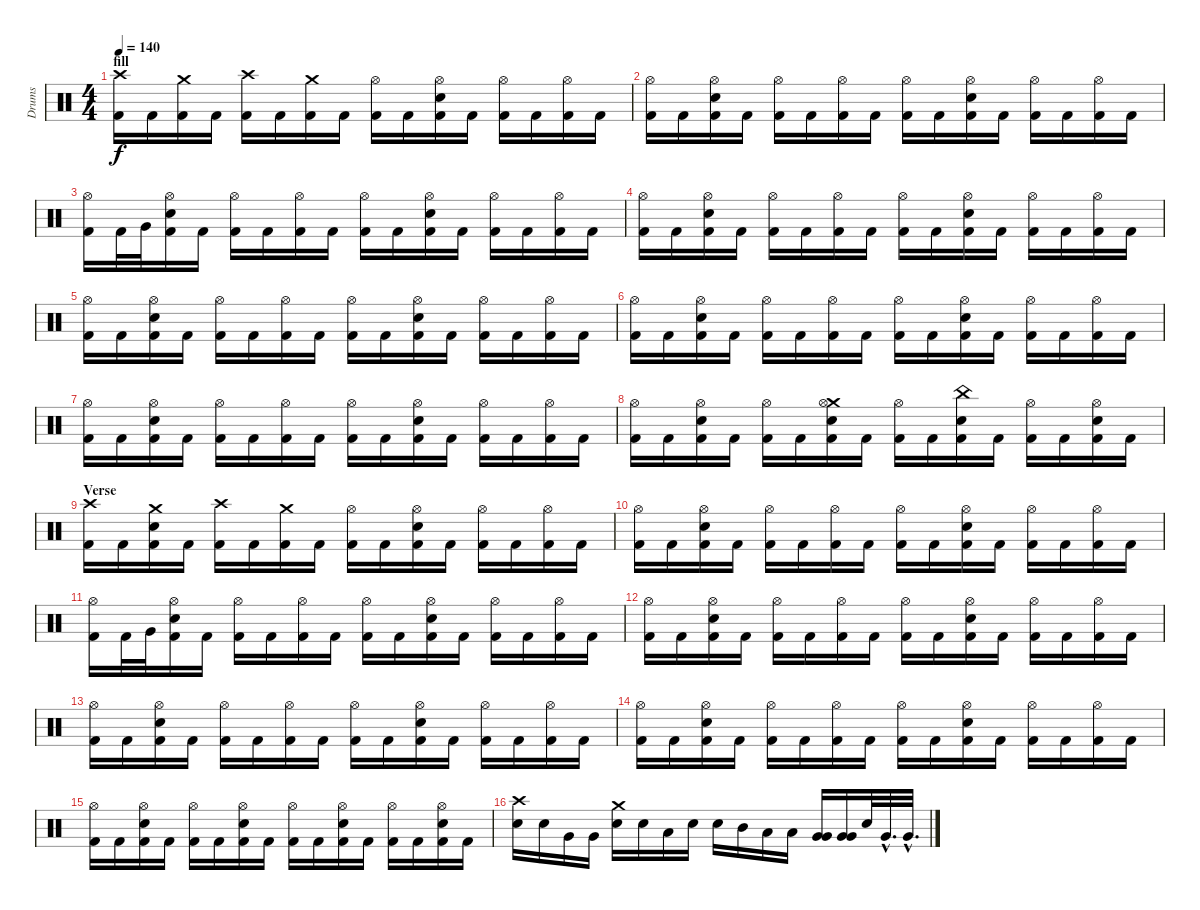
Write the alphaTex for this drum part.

\track ("Drums" "Drums") {instrument percussion}
\staff {score}
\articulation defaults
\ts (4 4)
\section ("" "fill")
\tempo 140
\clef neutral
\ks c
("Crash high (hit)" "Kick (hit) 2").16{dy f} "Kick (hit) 2".16 ("Crash medium (hit)" "Kick (hit) 2").16 "Kick (hit) 2".16 ("Crash high (hit)" "Kick (hit) 2").16 "Kick (hit) 2".16 ("Crash medium (hit)" "Kick (hit) 2").16 "Kick (hit) 2".16 ("Hi-Hat (open)" "Kick (hit) 2").16 "Kick (hit) 2".16 ("Hi-Hat (open)" "Snare (hit) 2" "Kick (hit) 2").16 "Kick (hit) 2".16 ("Hi-Hat (open)" "Kick (hit) 2").16 "Kick (hit) 2".16 ("Hi-Hat (open)" "Kick (hit) 2").16 "Kick (hit) 2".16 |
("Hi-Hat (open)" "Kick (hit) 2").16 "Kick (hit) 2".16 ("Hi-Hat (open)" "Snare (hit) 2" "Kick (hit) 2").16 "Kick (hit) 2".16 ("Hi-Hat (open)" "Kick (hit) 2").16 "Kick (hit) 2".16 ("Hi-Hat (open)" "Kick (hit) 2").16 "Kick (hit) 2".16 ("Hi-Hat (open)" "Kick (hit) 2").16 "Kick (hit) 2".16 ("Hi-Hat (open)" "Snare (hit) 2" "Kick (hit) 2").16 "Kick (hit) 2".16 ("Hi-Hat (open)" "Kick (hit) 2").16 "Kick (hit) 2".16 ("Hi-Hat (open)" "Kick (hit) 2").16 "Kick (hit) 2".16 |
("Hi-Hat (open)" "Kick (hit) 2").16 "Kick (hit) 2".32 "Very Low Tom (hit)".32 ("Hi-Hat (open)" "Snare (hit) 2" "Kick (hit) 2").16 "Kick (hit) 2".16 ("Hi-Hat (open)" "Kick (hit) 2").16 "Kick (hit) 2".16 ("Hi-Hat (open)" "Kick (hit) 2").16 "Kick (hit) 2".16 ("Hi-Hat (open)" "Kick (hit) 2").16 "Kick (hit) 2".16 ("Hi-Hat (open)" "Snare (hit) 2" "Kick (hit) 2").16 "Kick (hit) 2".16 ("Hi-Hat (open)" "Kick (hit) 2").16 "Kick (hit) 2".16 ("Hi-Hat (open)" "Kick (hit) 2").16 "Kick (hit) 2".16 |
("Hi-Hat (open)" "Kick (hit) 2").16 "Kick (hit) 2".16 ("Hi-Hat (open)" "Snare (hit) 2" "Kick (hit) 2").16 "Kick (hit) 2".16 ("Hi-Hat (open)" "Kick (hit) 2").16 "Kick (hit) 2".16 ("Hi-Hat (open)" "Kick (hit) 2").16 "Kick (hit) 2".16 ("Hi-Hat (open)" "Kick (hit) 2").16 "Kick (hit) 2".16 ("Hi-Hat (open)" "Snare (hit) 2" "Kick (hit) 2").16 "Kick (hit) 2".16 ("Hi-Hat (open)" "Kick (hit) 2").16 "Kick (hit) 2".16 ("Hi-Hat (open)" "Kick (hit) 2").16 "Kick (hit) 2".16 |
("Hi-Hat (open)" "Kick (hit) 2").16 "Kick (hit) 2".16 ("Hi-Hat (open)" "Snare (hit) 2" "Kick (hit) 2").16 "Kick (hit) 2".16 ("Hi-Hat (open)" "Kick (hit) 2").16 "Kick (hit) 2".16 ("Hi-Hat (open)" "Kick (hit) 2").16 "Kick (hit) 2".16 ("Hi-Hat (open)" "Kick (hit) 2").16 "Kick (hit) 2".16 ("Hi-Hat (open)" "Snare (hit) 2" "Kick (hit) 2").16 "Kick (hit) 2".16 ("Hi-Hat (open)" "Kick (hit) 2").16 "Kick (hit) 2".16 ("Hi-Hat (open)" "Kick (hit) 2").16 "Kick (hit) 2".16 |
("Hi-Hat (open)" "Kick (hit) 2").16 "Kick (hit) 2".16 ("Hi-Hat (open)" "Snare (hit) 2" "Kick (hit) 2").16 "Kick (hit) 2".16 ("Hi-Hat (open)" "Kick (hit) 2").16 "Kick (hit) 2".16 ("Hi-Hat (open)" "Kick (hit) 2").16 "Kick (hit) 2".16 ("Hi-Hat (open)" "Kick (hit) 2").16 "Kick (hit) 2".16 ("Hi-Hat (open)" "Snare (hit) 2" "Kick (hit) 2").16 "Kick (hit) 2".16 ("Hi-Hat (open)" "Kick (hit) 2").16 "Kick (hit) 2".16 ("Hi-Hat (open)" "Kick (hit) 2").16 "Kick (hit) 2".16 |
("Hi-Hat (open)" "Kick (hit) 2").16 "Kick (hit) 2".16 ("Hi-Hat (open)" "Snare (hit) 2" "Kick (hit) 2").16 "Kick (hit) 2".16 ("Hi-Hat (open)" "Kick (hit) 2").16 "Kick (hit) 2".16 ("Hi-Hat (open)" "Kick (hit) 2").16 "Kick (hit) 2".16 ("Hi-Hat (open)" "Kick (hit) 2").16 "Kick (hit) 2".16 ("Hi-Hat (open)" "Snare (hit) 2" "Kick (hit) 2").16 "Kick (hit) 2".16 ("Hi-Hat (open)" "Kick (hit) 2").16 "Kick (hit) 2".16 ("Hi-Hat (open)" "Kick (hit) 2").16 "Kick (hit) 2".16 |
("Hi-Hat (open)" "Kick (hit) 2").16 "Kick (hit) 2".16 ("Hi-Hat (open)" "Snare (hit) 2" "Kick (hit) 2").16 "Kick (hit) 2".16 ("Hi-Hat (open)" "Kick (hit) 2").16 "Kick (hit) 2".16 ("Crash medium (hit)" "Hi-Hat (open)" "Snare (hit) 2" "Kick (hit) 2").16 "Kick (hit) 2".16 ("Hi-Hat (open)" "Kick (hit) 2").16 "Kick (hit) 2".16 ("China (hit)" "Snare (hit) 2" "Kick (hit) 2").16 "Kick (hit) 2".16 ("Hi-Hat (open)" "Kick (hit) 2").16 "Kick (hit) 2".16 ("Hi-Hat (open)" "Snare (hit) 2" "Kick (hit) 2").16 "Kick (hit) 2".16 |
\section ("" "Verse")
("Crash high (hit)" "Kick (hit) 2").16 "Kick (hit) 2".16 ("Crash medium (hit)" "Snare (hit) 2" "Kick (hit) 2").16 "Kick (hit) 2".16 ("Crash high (hit)" "Kick (hit) 2").16 "Kick (hit) 2".16 ("Crash medium (hit)" "Kick (hit) 2").16 "Kick (hit) 2".16 ("Hi-Hat (open)" "Kick (hit) 2").16 "Kick (hit) 2".16 ("Hi-Hat (open)" "Snare (hit) 2" "Kick (hit) 2").16 "Kick (hit) 2".16 ("Hi-Hat (open)" "Kick (hit) 2").16 "Kick (hit) 2".16 ("Hi-Hat (open)" "Kick (hit) 2").16 "Kick (hit) 2".16 |
("Hi-Hat (open)" "Kick (hit) 2").16 "Kick (hit) 2".16 ("Hi-Hat (open)" "Snare (hit) 2" "Kick (hit) 2").16 "Kick (hit) 2".16 ("Hi-Hat (open)" "Kick (hit) 2").16 "Kick (hit) 2".16 ("Hi-Hat (open)" "Kick (hit) 2").16 "Kick (hit) 2".16 ("Hi-Hat (open)" "Kick (hit) 2").16 "Kick (hit) 2".16 ("Hi-Hat (open)" "Snare (hit) 2" "Kick (hit) 2").16 "Kick (hit) 2".16 ("Hi-Hat (open)" "Kick (hit) 2").16 "Kick (hit) 2".16 ("Hi-Hat (open)" "Kick (hit) 2").16 "Kick (hit) 2".16 |
("Hi-Hat (open)" "Kick (hit) 2").16 "Kick (hit) 2".32 "Very Low Tom (hit)".32 ("Hi-Hat (open)" "Snare (hit) 2" "Kick (hit) 2").16 "Kick (hit) 2".16 ("Hi-Hat (open)" "Kick (hit) 2").16 "Kick (hit) 2".16 ("Hi-Hat (open)" "Kick (hit) 2").16 "Kick (hit) 2".16 ("Hi-Hat (open)" "Kick (hit) 2").16 "Kick (hit) 2".16 ("Hi-Hat (open)" "Snare (hit) 2" "Kick (hit) 2").16 "Kick (hit) 2".16 ("Hi-Hat (open)" "Kick (hit) 2").16 "Kick (hit) 2".16 ("Hi-Hat (open)" "Kick (hit) 2").16 "Kick (hit) 2".16 |
("Hi-Hat (open)" "Kick (hit) 2").16 "Kick (hit) 2".16 ("Hi-Hat (open)" "Snare (hit) 2" "Kick (hit) 2").16 "Kick (hit) 2".16 ("Hi-Hat (open)" "Kick (hit) 2").16 "Kick (hit) 2".16 ("Hi-Hat (open)" "Kick (hit) 2").16 "Kick (hit) 2".16 ("Hi-Hat (open)" "Kick (hit) 2").16 "Kick (hit) 2".16 ("Hi-Hat (open)" "Snare (hit) 2" "Kick (hit) 2").16 "Kick (hit) 2".16 ("Hi-Hat (open)" "Kick (hit) 2").16 "Kick (hit) 2".16 ("Hi-Hat (open)" "Kick (hit) 2").16 "Kick (hit) 2".16 |
("Hi-Hat (open)" "Kick (hit) 2").16 "Kick (hit) 2".16 ("Hi-Hat (open)" "Snare (hit) 2" "Kick (hit) 2").16 "Kick (hit) 2".16 ("Hi-Hat (open)" "Kick (hit) 2").16 "Kick (hit) 2".16 ("Hi-Hat (open)" "Kick (hit) 2").16 "Kick (hit) 2".16 ("Hi-Hat (open)" "Kick (hit) 2").16 "Kick (hit) 2".16 ("Hi-Hat (open)" "Snare (hit) 2" "Kick (hit) 2").16 "Kick (hit) 2".16 ("Hi-Hat (open)" "Kick (hit) 2").16 "Kick (hit) 2".16 ("Hi-Hat (open)" "Kick (hit) 2").16 "Kick (hit) 2".16 |
("Hi-Hat (open)" "Kick (hit) 2").16 "Kick (hit) 2".16 ("Hi-Hat (open)" "Snare (hit) 2" "Kick (hit) 2").16 "Kick (hit) 2".16 ("Hi-Hat (open)" "Kick (hit) 2").16 "Kick (hit) 2".16 ("Hi-Hat (open)" "Kick (hit) 2").16 "Kick (hit) 2".16 ("Hi-Hat (open)" "Kick (hit) 2").16 "Kick (hit) 2".16 ("Hi-Hat (open)" "Snare (hit) 2" "Kick (hit) 2").16 "Kick (hit) 2".16 ("Hi-Hat (open)" "Kick (hit) 2").16 "Kick (hit) 2".16 ("Hi-Hat (open)" "Kick (hit) 2").16 "Kick (hit) 2".16 |
("Hi-Hat (open)" "Kick (hit) 2").16 "Kick (hit) 2".16 ("Hi-Hat (open)" "Snare (hit) 2" "Kick (hit) 2").16 "Kick (hit) 2".16 ("Hi-Hat (open)" "Kick (hit) 2").16 "Kick (hit) 2".16 ("Hi-Hat (open)" "Snare (hit) 2" "Kick (hit) 2").16 "Kick (hit) 2".16 ("Hi-Hat (open)" "Kick (hit) 2").16 "Kick (hit) 2".16 ("Hi-Hat (open)" "Snare (hit) 2" "Kick (hit) 2").16 "Kick (hit) 2".16 ("Hi-Hat (open)" "Kick (hit) 2").16 "Kick (hit) 2".16 ("Hi-Hat (open)" "Snare (hit) 2" "Kick (hit) 2").16 "Kick (hit) 2".16 |
("Crash high (hit)" "Snare (hit) 2").16 "Snare (hit) 2".16 "Very Low Tom (hit)".16 "Very Low Tom (hit)".16 ("Crash medium (hit)" "Snare (hit) 2").16 "Snare (hit) 2".16 "Low Tom (hit)".16 "Snare (hit) 2".16 "Snare (hit) 2".16 "Mid Tom (hit)".16 "Low Tom (hit)".16 "Low Tom (hit)".16 ("Very Low Tom (hit)" "Very Low Tom (hit)").16 ("Very Low Tom (hit)" "Very Low Tom (hit)").16 "Snare (hit) 2".32 "Very Low Tom (hit)"{hac}.32{d} "Very Low Tom (hit)"{hac}.32{d}
